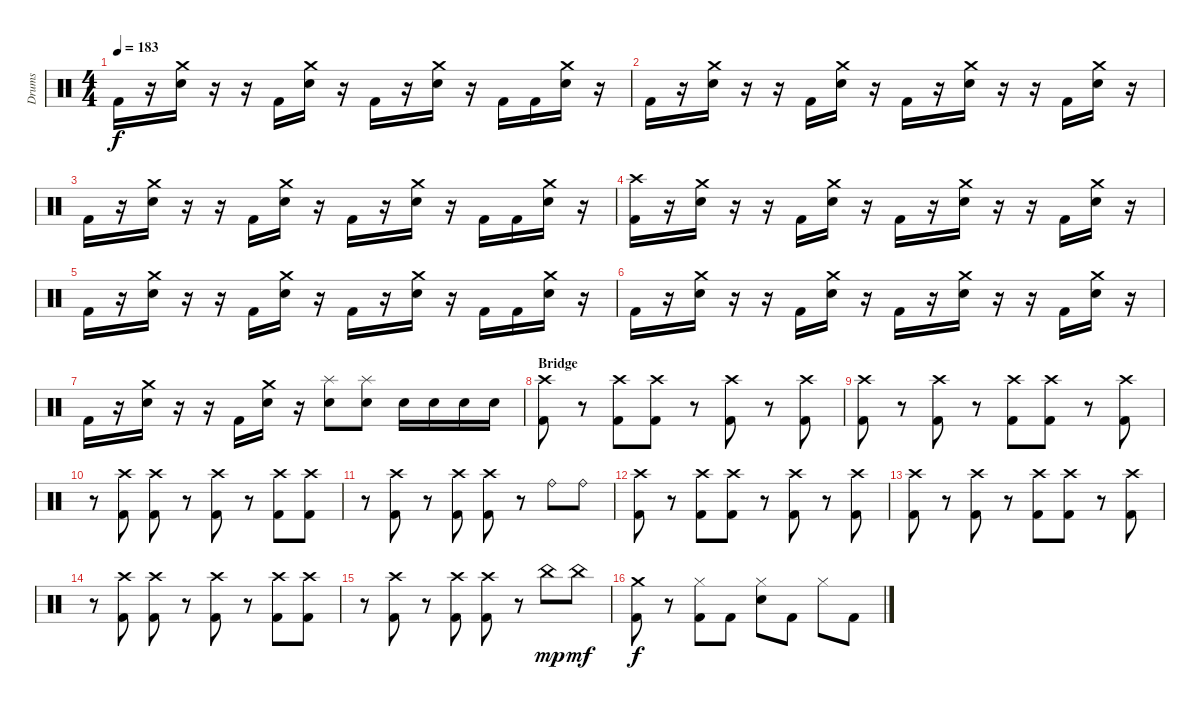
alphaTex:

\track ("Drums" "Drums") {instrument percussion}
\staff {score}
\articulation defaults
\ts (4 4)
\tempo 183
\clef neutral
\ks c "Kick (hit) 2".16{dy f}
r.16 ("Crash medium (hit)" "Electric Snare (hit)").16 r.16 r.16 "Kick (hit) 2".16 ("Crash medium (hit)" "Electric Snare (hit)").16 r.16 "Kick (hit) 2".16 r.16 ("Crash medium (hit)" "Electric Snare (hit)").16 r.16 "Kick (hit) 2".16 "Kick (hit) 2".16 ("Crash medium (hit)" "Electric Snare (hit)").16 r.16 |
"Kick (hit) 2".16 r.16 ("Crash medium (hit)" "Electric Snare (hit)").16 r.16 r.16 "Kick (hit) 2".16 ("Crash medium (hit)" "Electric Snare (hit)").16 r.16 "Kick (hit) 2".16 r.16 ("Crash medium (hit)" "Electric Snare (hit)").16 r.16 r.16 "Kick (hit) 2".16 ("Crash medium (hit)" "Electric Snare (hit)").16 r.16 |
"Kick (hit) 2".16 r.16 ("Crash medium (hit)" "Electric Snare (hit)").16 r.16 r.16 "Kick (hit) 2".16 ("Crash medium (hit)" "Electric Snare (hit)").16 r.16 "Kick (hit) 2".16 r.16 ("Crash medium (hit)" "Electric Snare (hit)").16 r.16 "Kick (hit) 2".16 "Kick (hit) 2".16 ("Crash medium (hit)" "Electric Snare (hit)").16 r.16 |
("Crash high (hit)" "Kick (hit) 2").16 r.16 ("Crash medium (hit)" "Electric Snare (hit)").16 r.16 r.16 "Kick (hit) 2".16 ("Crash medium (hit)" "Electric Snare (hit)").16 r.16 "Kick (hit) 2".16 r.16 ("Crash medium (hit)" "Electric Snare (hit)").16 r.16 r.16 "Kick (hit) 2".16 ("Crash medium (hit)" "Electric Snare (hit)").16 r.16 |
"Kick (hit) 2".16 r.16 ("Crash medium (hit)" "Electric Snare (hit)").16 r.16 r.16 "Kick (hit) 2".16 ("Crash medium (hit)" "Electric Snare (hit)").16 r.16 "Kick (hit) 2".16 r.16 ("Crash medium (hit)" "Electric Snare (hit)").16 r.16 "Kick (hit) 2".16 "Kick (hit) 2".16 ("Crash medium (hit)" "Electric Snare (hit)").16 r.16 |
"Kick (hit) 2".16 r.16 ("Crash medium (hit)" "Electric Snare (hit)").16 r.16 r.16 "Kick (hit) 2".16 ("Crash medium (hit)" "Electric Snare (hit)").16 r.16 "Kick (hit) 2".16 r.16 ("Crash medium (hit)" "Electric Snare (hit)").16 r.16 r.16 "Kick (hit) 2".16 ("Crash medium (hit)" "Electric Snare (hit)").16 r.16 |
"Kick (hit) 2".16 r.16 ("Crash medium (hit)" "Electric Snare (hit)").16 r.16 r.16 "Kick (hit) 2".16 ("Crash medium (hit)" "Electric Snare (hit)").16 r.16 ("Splash (hit)" "Electric Snare (hit)").8 ("Splash (hit)" "Electric Snare (hit)").8 "Electric Snare (hit)".16 "Electric Snare (hit)".16 "Electric Snare (hit)".16 "Electric Snare (hit)".16 |
\section ("" "Bridge")
("Crash high (hit)" "Kick (hit) 2").8 r.8 ("Crash high (hit)" "Kick (hit) 2").8 ("Crash high (hit)" "Kick (hit) 2").8 r.8 ("Crash high (hit)" "Kick (hit) 2").8 r.8 ("Crash high (hit)" "Kick (hit) 2").8 |
("Crash high (hit)" "Kick (hit) 2").8 r.8 ("Crash high (hit)" "Kick (hit) 2").8 r.8 ("Crash high (hit)" "Kick (hit) 2").8 ("Crash high (hit)" "Kick (hit) 2").8 r.8 ("Crash high (hit)" "Kick (hit) 2").8 |
r.8 ("Crash high (hit)" "Kick (hit) 2").8 ("Crash high (hit)" "Kick (hit) 2").8 r.8 ("Crash high (hit)" "Kick (hit) 2").8 r.8 ("Crash high (hit)" "Kick (hit) 2").8 ("Crash high (hit)" "Kick (hit) 2").8 |
r.8 ("Crash high (hit)" "Kick (hit) 2").8 r.8 ("Crash high (hit)" "Kick (hit) 2").8 ("Crash high (hit)" "Kick (hit) 2").8 r.8 "Ride (bell)".8 "Ride (bell)".8 |
("Crash high (hit)" "Kick (hit) 2").8 r.8 ("Crash high (hit)" "Kick (hit) 2").8 ("Crash high (hit)" "Kick (hit) 2").8 r.8 ("Crash high (hit)" "Kick (hit) 2").8 r.8 ("Crash high (hit)" "Kick (hit) 2").8 |
("Crash high (hit)" "Kick (hit) 2").8 r.8 ("Crash high (hit)" "Kick (hit) 2").8 r.8 ("Crash high (hit)" "Kick (hit) 2").8 ("Crash high (hit)" "Kick (hit) 2").8 r.8 ("Crash high (hit)" "Kick (hit) 2").8 |
r.8 ("Crash high (hit)" "Kick (hit) 2").8 ("Crash high (hit)" "Kick (hit) 2").8 r.8 ("Crash high (hit)" "Kick (hit) 2").8 r.8 ("Crash high (hit)" "Kick (hit) 2").8 ("Crash high (hit)" "Kick (hit) 2").8 |
r.8 ("Crash high (hit)" "Kick (hit) 2").8 r.8 ("Crash high (hit)" "Kick (hit) 2").8 ("Crash high (hit)" "Kick (hit) 2").8 r.8 "China (hit)".8{dy mp} "China (hit)".8{dy mf} |
("Crash medium (hit)" "Kick (hit) 2").8{dy f} r.8 ("Hi-Hat (closed)" "Kick (hit) 2").8 "Kick (hit) 2".8 ("Hi-Hat (closed)" "Electric Snare (hit)").8 "Kick (hit) 2".8 "Hi-Hat (closed)".8 "Kick (hit) 2".8
